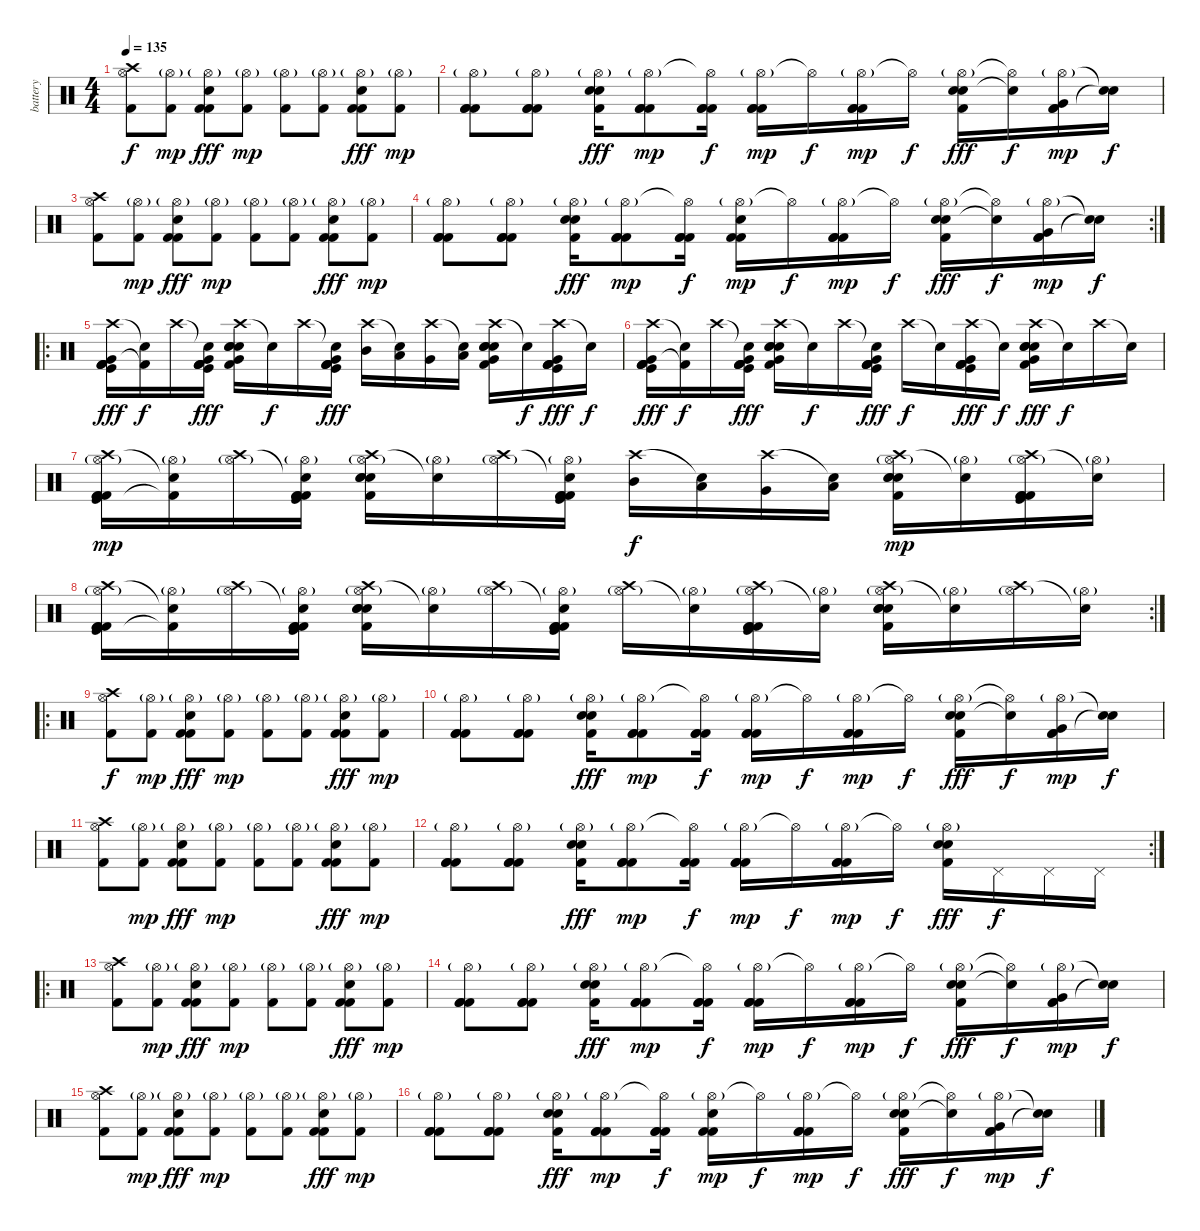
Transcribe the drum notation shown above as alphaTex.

\track ("battery" "battery") {instrument percussion}
\staff {score}
\articulation defaults
\ts (4 4)
\tempo 135
\clef neutral
\ks c
("Hi-Hat (open)" "Crash high (hit)" "Kick (hit) 2").8{dy f} ("Hi-Hat (open)"{g} "Kick (hit) 2").8{dy mp} ("Hi-Hat (open)"{g} "Kick (hit) 2" "Electric Snare (hit)" "Kick (hit) 2").8{dy fff} ("Hi-Hat (open)"{g} "Kick (hit) 2").8{dy mp} ("Hi-Hat (open)"{g} "Kick (hit) 2").8 ("Hi-Hat (open)"{g} "Kick (hit) 2").8 ("Hi-Hat (open)"{g} "Kick (hit) 2" "Electric Snare (hit)" "Kick (hit) 2").8{dy fff} ("Hi-Hat (open)"{g} "Kick (hit) 2").8{dy mp} |
("Hi-Hat (open)"{g} "Kick (hit) 2" "Kick (hit) 2" "Kick (hit) 2").8 ("Hi-Hat (open)"{g} "Kick (hit) 2" "Kick (hit) 2" "Kick (hit) 2").8 ("Hi-Hat (open)"{g} "Electric Snare (hit)" "Kick (hit) 2" "Electric Snare (hit)").16{dy fff} ("Hi-Hat (open)"{g} "Kick (hit) 2" "Kick (hit) 2" "Kick (hit) 2").8{dy mp} ("Hi-Hat (open)"{t} "Kick (hit) 2" "Kick (hit) 2" "Kick (hit) 2").16{dy f} ("Hi-Hat (open)"{g} "Kick (hit) 2" "Kick (hit) 2" "Kick (hit) 2").16{dy mp} "Hi-Hat (open)"{t}.16{dy f} ("Hi-Hat (open)"{g} "Kick (hit) 2" "Kick (hit) 2" "Kick (hit) 2").16{dy mp} "Hi-Hat (open)"{t}.16{dy f} ("Hi-Hat (open)"{g} "Electric Snare (hit)" "Kick (hit) 2" "Electric Snare (hit)").16{dy fff} ("Hi-Hat (open)"{t} "Snare (hit)"{t}).16{dy f} ("Hi-Hat (open)"{g} "Kick (hit) 2" "Very Low Tom (hit)" "Kick (hit) 2").16{dy mp} ("Snare (hit)"{t} "Snare (hit)"{t}).16{dy f} |
("Hi-Hat (open)" "Crash high (hit)" "Kick (hit) 2").8 ("Hi-Hat (open)"{g} "Kick (hit) 2").8{dy mp} ("Hi-Hat (open)"{g} "Kick (hit) 2" "Electric Snare (hit)" "Kick (hit) 2").8{dy fff} ("Hi-Hat (open)"{g} "Kick (hit) 2").8{dy mp} ("Hi-Hat (open)"{g} "Kick (hit) 2").8 ("Hi-Hat (open)"{g} "Kick (hit) 2").8 ("Hi-Hat (open)"{g} "Kick (hit) 2" "Electric Snare (hit)" "Kick (hit) 2").8{dy fff} ("Hi-Hat (open)"{g} "Kick (hit) 2").8{dy mp} |
\rc 2
("Hi-Hat (open)"{g} "Kick (hit) 2" "Kick (hit) 2" "Kick (hit) 2").8 ("Hi-Hat (open)"{g} "Kick (hit) 2" "Kick (hit) 2" "Kick (hit) 2").8 ("Hi-Hat (open)"{g} "Electric Snare (hit)" "Kick (hit) 2" "Electric Snare (hit)").16{dy fff} ("Hi-Hat (open)"{g} "Kick (hit) 2" "Kick (hit) 2" "Kick (hit) 2").8{dy mp} ("Hi-Hat (open)"{t} "Kick (hit) 2" "Kick (hit) 2" "Kick (hit) 2").16{dy f} ("Hi-Hat (open)"{g} "Snare (hit)" "Kick (hit) 2" "Kick (hit) 2").16{dy mp} "Hi-Hat (open)"{t}.16{dy f} ("Hi-Hat (open)"{g} "Kick (hit) 2" "Kick (hit) 2" "Kick (hit) 2").16{dy mp} "Hi-Hat (open)"{t}.16{dy f} ("Hi-Hat (open)"{g} "Electric Snare (hit)" "Kick (hit) 2" "Electric Snare (hit)").16{dy fff} ("Hi-Hat (open)"{t} "Snare (hit)"{t}).16{dy f} ("Hi-Hat (open)"{g} "Kick (hit) 2" "Very Low Tom (hit)" "Kick (hit) 2").16{dy mp} ("Snare (hit)"{t} "Snare (hit)"{t}).16{dy f} |
\ro
("Crash high (hit)" "Very Low Tom (hit)" "Kick (hit)" "Kick (hit) 2" "Kick (hit) 2" "Kick (hit) 2").16{dy fff} ("Snare (hit)"{t} "Kick (hit) 2"{t}).16{dy f} "Crash high (hit)".16 ("Snare (hit)"{t} "Very Low Tom (hit)" "Kick (hit)" "Kick (hit) 2" "Kick (hit) 2" "Kick (hit) 2").16{dy fff} ("Crash high (hit)" "Very Low Tom (hit)" "Kick (hit) 2" "Electric Snare (hit)" "Electric Snare (hit)" "Electric Snare (hit)").16 "Snare (hit)"{t}.16{dy f} "Crash high (hit)".16 ("Snare (hit)"{t} "Very Low Tom (hit)" "Kick (hit)" "Kick (hit) 2" "Kick (hit) 2" "Kick (hit) 2").16{dy fff} ("Crash high (hit)" "Mid Tom (hit)").16 ("Snare (hit)"{t} "Low Tom (hit)").16 ("Crash high (hit)" "Very Low Tom (hit)").16 ("Snare (hit)"{t} "Low Floor Tom (hit)").16 ("Crash high (hit)" "Very Low Tom (hit)" "Kick (hit) 2" "Electric Snare (hit)" "Electric Snare (hit)" "Electric Snare (hit)").16 "Snare (hit)"{t}.16{dy f} ("Crash high (hit)" "Very Low Tom (hit)" "Kick (hit)" "Kick (hit) 2" "Kick (hit) 2" "Kick (hit) 2").16{dy fff} "Snare (hit)"{t}.16{dy f} |
("Crash high (hit)" "Very Low Tom (hit)" "Kick (hit)" "Kick (hit) 2" "Kick (hit) 2" "Kick (hit) 2").16{dy fff} ("Snare (hit)"{t} "Kick (hit) 2"{t}).16{dy f} "Crash high (hit)".16 ("Snare (hit)"{t} "Very Low Tom (hit)" "Kick (hit)" "Kick (hit) 2" "Kick (hit) 2" "Kick (hit) 2").16{dy fff} ("Crash high (hit)" "Very Low Tom (hit)" "Kick (hit) 2" "Electric Snare (hit)" "Electric Snare (hit)" "Electric Snare (hit)").16 "Snare (hit)"{t}.16{dy f} "Crash high (hit)".16 ("Snare (hit)"{t} "Very Low Tom (hit)" "Kick (hit)" "Kick (hit) 2" "Kick (hit) 2" "Kick (hit) 2").16{dy fff} "Crash high (hit)".16{dy f} "Snare (hit)"{t}.16 ("Crash high (hit)" "Very Low Tom (hit)" "Kick (hit)" "Kick (hit) 2" "Kick (hit) 2" "Kick (hit) 2").16{dy fff} "Snare (hit)"{t}.16{dy f} ("Crash high (hit)" "Very Low Tom (hit)" "Kick (hit) 2" "Electric Snare (hit)" "Electric Snare (hit)" "Electric Snare (hit)").16{dy fff} "Snare (hit)"{t}.16{dy f} "Crash high (hit)".16 "Snare (hit)"{t}.16 |
("Crash high (hit)" "Hi-Hat (open)"{g} "Kick (hit)" "Kick (hit) 2" "Kick (hit) 2" "Kick (hit) 2").16{dy mp} ("Snare (hit)"{t} "Hi-Hat (open)"{g} "Kick (hit) 2"{t}).16 ("Crash high (hit)" "Hi-Hat (open)"{g}).16 ("Snare (hit)"{t} "Hi-Hat (open)"{g} "Kick (hit)" "Kick (hit) 2" "Kick (hit) 2" "Kick (hit) 2").16 ("Crash high (hit)" "Hi-Hat (open)"{g} "Kick (hit) 2" "Electric Snare (hit)" "Electric Snare (hit)" "Electric Snare (hit)").16 ("Snare (hit)"{t} "Hi-Hat (open)"{g}).16 ("Crash high (hit)" "Hi-Hat (open)"{g}).16 ("Snare (hit)"{t} "Hi-Hat (open)"{g} "Kick (hit)" "Kick (hit) 2" "Kick (hit) 2" "Kick (hit) 2").16 ("Crash high (hit)" "Mid Tom (hit)").16{dy f} ("Snare (hit)"{t} "Low Tom (hit)").16 ("Crash high (hit)" "Very Low Tom (hit)").16 ("Snare (hit)"{t} "Low Floor Tom (hit)").16 ("Crash high (hit)" "Hi-Hat (open)"{g} "Kick (hit) 2" "Electric Snare (hit)" "Electric Snare (hit)" "Electric Snare (hit)").16{dy mp} ("Snare (hit)"{t} "Hi-Hat (open)"{g}).16 ("Crash high (hit)" "Hi-Hat (open)"{g} "Kick (hit)" "Kick (hit) 2" "Kick (hit) 2" "Kick (hit) 2").16 ("Snare (hit)"{t} "Hi-Hat (open)"{g}).16 |
\rc 2
("Crash high (hit)" "Hi-Hat (open)"{g} "Kick (hit)" "Kick (hit) 2" "Kick (hit) 2" "Kick (hit) 2").16 ("Snare (hit)"{t} "Hi-Hat (open)"{g} "Kick (hit) 2"{t}).16 ("Crash high (hit)" "Hi-Hat (open)"{g}).16 ("Snare (hit)"{t} "Hi-Hat (open)"{g} "Kick (hit)" "Kick (hit) 2" "Kick (hit) 2" "Kick (hit) 2").16 ("Crash high (hit)" "Hi-Hat (open)"{g} "Kick (hit) 2" "Electric Snare (hit)" "Electric Snare (hit)" "Electric Snare (hit)").16 ("Snare (hit)"{t} "Hi-Hat (open)"{g}).16 ("Crash high (hit)" "Hi-Hat (open)"{g}).16 ("Snare (hit)"{t} "Hi-Hat (open)"{g} "Kick (hit)" "Kick (hit) 2" "Kick (hit) 2" "Kick (hit) 2").16 ("Crash high (hit)" "Hi-Hat (open)"{g}).16 ("Snare (hit)"{t} "Hi-Hat (open)"{g}).16 ("Crash high (hit)" "Hi-Hat (open)"{g} "Kick (hit)" "Kick (hit) 2" "Kick (hit) 2" "Kick (hit) 2").16 ("Snare (hit)"{t} "Hi-Hat (open)"{g}).16 ("Crash high (hit)" "Hi-Hat (open)"{g} "Kick (hit) 2" "Electric Snare (hit)" "Electric Snare (hit)" "Electric Snare (hit)").16 ("Snare (hit)"{t} "Hi-Hat (open)"{g}).16 ("Crash high (hit)" "Hi-Hat (open)"{g}).16 ("Snare (hit)"{t} "Hi-Hat (open)"{g}).16 |
\ro
("Hi-Hat (open)" "Crash high (hit)" "Kick (hit) 2").8{dy f} ("Hi-Hat (open)"{g} "Kick (hit) 2").8{dy mp} ("Hi-Hat (open)"{g} "Kick (hit) 2" "Electric Snare (hit)" "Kick (hit) 2").8{dy fff} ("Hi-Hat (open)"{g} "Kick (hit) 2").8{dy mp} ("Hi-Hat (open)"{g} "Kick (hit) 2").8 ("Hi-Hat (open)"{g} "Kick (hit) 2").8 ("Hi-Hat (open)"{g} "Kick (hit) 2" "Electric Snare (hit)" "Kick (hit) 2").8{dy fff} ("Hi-Hat (open)"{g} "Kick (hit) 2").8{dy mp} |
("Hi-Hat (open)"{g} "Kick (hit) 2" "Kick (hit) 2" "Kick (hit) 2").8 ("Hi-Hat (open)"{g} "Kick (hit) 2" "Kick (hit) 2" "Kick (hit) 2").8 ("Hi-Hat (open)"{g} "Electric Snare (hit)" "Kick (hit) 2" "Electric Snare (hit)").16{dy fff} ("Hi-Hat (open)"{g} "Kick (hit) 2" "Kick (hit) 2" "Kick (hit) 2").8{dy mp} ("Hi-Hat (open)"{t} "Kick (hit) 2" "Kick (hit) 2" "Kick (hit) 2").16{dy f} ("Hi-Hat (open)"{g} "Kick (hit) 2" "Kick (hit) 2" "Kick (hit) 2").16{dy mp} "Hi-Hat (open)"{t}.16{dy f} ("Hi-Hat (open)"{g} "Kick (hit) 2" "Kick (hit) 2" "Kick (hit) 2").16{dy mp} "Hi-Hat (open)"{t}.16{dy f} ("Hi-Hat (open)"{g} "Electric Snare (hit)" "Kick (hit) 2" "Electric Snare (hit)").16{dy fff} ("Hi-Hat (open)"{t} "Snare (hit)"{t}).16{dy f} ("Hi-Hat (open)"{g} "Kick (hit) 2" "Very Low Tom (hit)" "Kick (hit) 2").16{dy mp} ("Snare (hit)"{t} "Snare (hit)"{t}).16{dy f} |
("Hi-Hat (open)" "Crash high (hit)" "Kick (hit) 2").8 ("Hi-Hat (open)"{g} "Kick (hit) 2").8{dy mp} ("Hi-Hat (open)"{g} "Kick (hit) 2" "Electric Snare (hit)" "Kick (hit) 2").8{dy fff} ("Hi-Hat (open)"{g} "Kick (hit) 2").8{dy mp} ("Hi-Hat (open)"{g} "Kick (hit) 2").8 ("Hi-Hat (open)"{g} "Kick (hit) 2").8 ("Hi-Hat (open)"{g} "Kick (hit) 2" "Electric Snare (hit)" "Kick (hit) 2").8{dy fff} ("Hi-Hat (open)"{g} "Kick (hit) 2").8{dy mp} |
\rc 2
("Hi-Hat (open)"{g} "Kick (hit) 2" "Kick (hit) 2" "Kick (hit) 2").8 ("Hi-Hat (open)"{g} "Kick (hit) 2" "Kick (hit) 2" "Kick (hit) 2").8 ("Hi-Hat (open)"{g} "Electric Snare (hit)" "Kick (hit) 2" "Electric Snare (hit)").16{dy fff} ("Hi-Hat (open)"{g} "Kick (hit) 2" "Kick (hit) 2" "Kick (hit) 2").8{dy mp} ("Hi-Hat (open)"{t} "Kick (hit) 2" "Kick (hit) 2" "Kick (hit) 2").16{dy f} ("Hi-Hat (open)"{g} "Kick (hit) 2" "Kick (hit) 2" "Kick (hit) 2").16{dy mp} "Hi-Hat (open)"{t}.16{dy f} ("Hi-Hat (open)"{g} "Kick (hit) 2" "Kick (hit) 2" "Kick (hit) 2").16{dy mp} "Hi-Hat (open)"{t}.16{dy f} ("Hi-Hat (open)"{g} "Electric Snare (hit)" "Kick (hit) 2" "Electric Snare (hit)").16{dy fff} "Pedal Hi-Hat (hit)".16{dy f} "Pedal Hi-Hat (hit)".16 "Pedal Hi-Hat (hit)".16 |
\ro
("Hi-Hat (open)" "Crash high (hit)" "Kick (hit) 2").8 ("Hi-Hat (open)"{g} "Kick (hit) 2").8{dy mp} ("Hi-Hat (open)"{g} "Kick (hit) 2" "Electric Snare (hit)" "Kick (hit) 2").8{dy fff} ("Hi-Hat (open)"{g} "Kick (hit) 2").8{dy mp} ("Hi-Hat (open)"{g} "Kick (hit) 2").8 ("Hi-Hat (open)"{g} "Kick (hit) 2").8 ("Hi-Hat (open)"{g} "Kick (hit) 2" "Electric Snare (hit)" "Kick (hit) 2").8{dy fff} ("Hi-Hat (open)"{g} "Kick (hit) 2").8{dy mp} |
("Hi-Hat (open)"{g} "Kick (hit) 2" "Kick (hit) 2" "Kick (hit) 2").8 ("Hi-Hat (open)"{g} "Kick (hit) 2" "Kick (hit) 2" "Kick (hit) 2").8 ("Hi-Hat (open)"{g} "Electric Snare (hit)" "Kick (hit) 2" "Electric Snare (hit)").16{dy fff} ("Hi-Hat (open)"{g} "Kick (hit) 2" "Kick (hit) 2" "Kick (hit) 2").8{dy mp} ("Hi-Hat (open)"{t} "Kick (hit) 2" "Kick (hit) 2" "Kick (hit) 2").16{dy f} ("Hi-Hat (open)"{g} "Kick (hit) 2" "Kick (hit) 2" "Kick (hit) 2").16{dy mp} "Hi-Hat (open)"{t}.16{dy f} ("Hi-Hat (open)"{g} "Kick (hit) 2" "Kick (hit) 2" "Kick (hit) 2").16{dy mp} "Hi-Hat (open)"{t}.16{dy f} ("Hi-Hat (open)"{g} "Electric Snare (hit)" "Kick (hit) 2" "Electric Snare (hit)").16{dy fff} ("Hi-Hat (open)"{t} "Snare (hit)"{t}).16{dy f} ("Hi-Hat (open)"{g} "Kick (hit) 2" "Very Low Tom (hit)" "Kick (hit) 2").16{dy mp} ("Snare (hit)"{t} "Snare (hit)"{t}).16{dy f} |
("Hi-Hat (open)" "Crash high (hit)" "Kick (hit) 2").8 ("Hi-Hat (open)"{g} "Kick (hit) 2").8{dy mp} ("Hi-Hat (open)"{g} "Kick (hit) 2" "Electric Snare (hit)" "Kick (hit) 2").8{dy fff} ("Hi-Hat (open)"{g} "Kick (hit) 2").8{dy mp} ("Hi-Hat (open)"{g} "Kick (hit) 2").8 ("Hi-Hat (open)"{g} "Kick (hit) 2").8 ("Hi-Hat (open)"{g} "Kick (hit) 2" "Electric Snare (hit)" "Kick (hit) 2").8{dy fff} ("Hi-Hat (open)"{g} "Kick (hit) 2").8{dy mp} |
("Hi-Hat (open)"{g} "Kick (hit) 2" "Kick (hit) 2" "Kick (hit) 2").8 ("Hi-Hat (open)"{g} "Kick (hit) 2" "Kick (hit) 2" "Kick (hit) 2").8 ("Hi-Hat (open)"{g} "Electric Snare (hit)" "Kick (hit) 2" "Electric Snare (hit)").16{dy fff} ("Hi-Hat (open)"{g} "Kick (hit) 2" "Kick (hit) 2" "Kick (hit) 2").8{dy mp} ("Hi-Hat (open)"{t} "Kick (hit) 2" "Kick (hit) 2" "Kick (hit) 2").16{dy f} ("Hi-Hat (open)"{g} "Snare (hit)" "Kick (hit) 2" "Kick (hit) 2").16{dy mp} "Hi-Hat (open)"{t}.16{dy f} ("Hi-Hat (open)"{g} "Kick (hit) 2" "Kick (hit) 2" "Kick (hit) 2").16{dy mp} "Hi-Hat (open)"{t}.16{dy f} ("Hi-Hat (open)"{g} "Electric Snare (hit)" "Kick (hit) 2" "Electric Snare (hit)").16{dy fff} ("Hi-Hat (open)"{t} "Snare (hit)"{t}).16{dy f} ("Hi-Hat (open)"{g} "Kick (hit) 2" "Very Low Tom (hit)" "Kick (hit) 2").16{dy mp} ("Snare (hit)"{t} "Snare (hit)"{t}).16{dy f}
